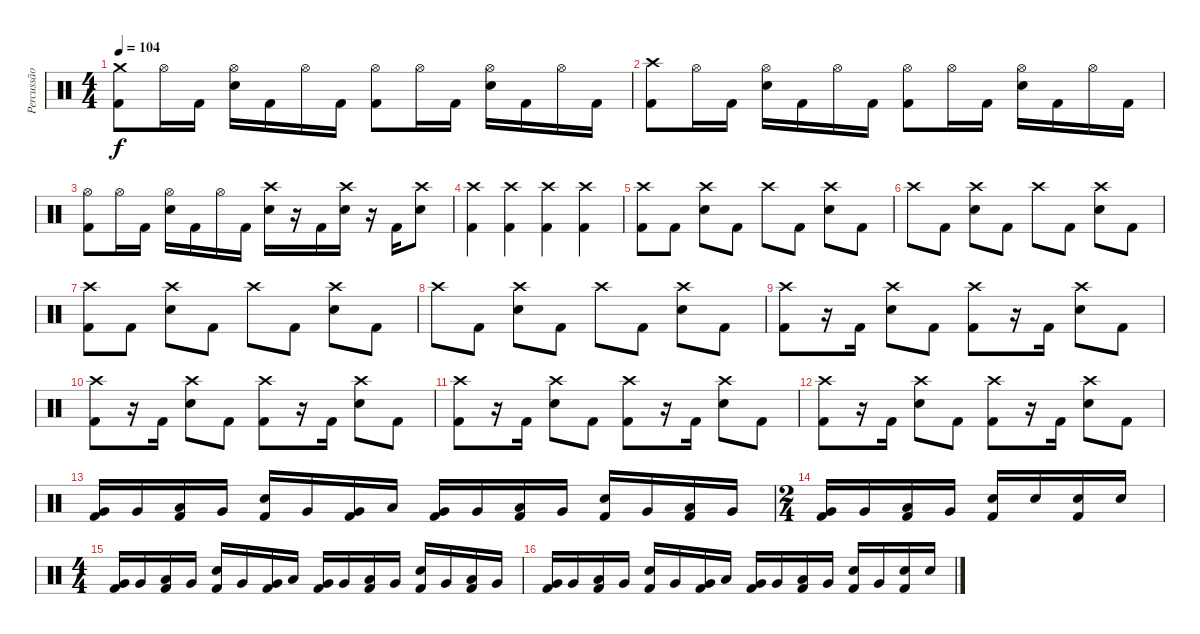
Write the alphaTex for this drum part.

\track ("Percussão" "Percussão") {instrument percussion}
\staff {score}
\articulation defaults
\ts (4 4)
\tempo 104
\clef neutral
\ks c
("Crash medium (hit)" "Kick (hit) 2").8{dy f} "Hi-Hat (open)".16 "Kick (hit) 2".16 ("Hi-Hat (open)" "Electric Snare (hit)").16 "Kick (hit) 2".16 "Hi-Hat (open)".16 "Kick (hit) 2".16 ("Hi-Hat (open)" "Kick (hit) 2").8 "Hi-Hat (open)".16 "Kick (hit) 2".16 ("Hi-Hat (open)" "Electric Snare (hit)").16 "Kick (hit) 2".16 "Hi-Hat (open)".16 "Kick (hit) 2".16 |
("Crash high (hit)" "Kick (hit) 2").8 "Hi-Hat (open)".16 "Kick (hit) 2".16 ("Hi-Hat (open)" "Electric Snare (hit)").16 "Kick (hit) 2".16 "Hi-Hat (open)".16 "Kick (hit) 2".16 ("Hi-Hat (open)" "Kick (hit) 2").8 "Hi-Hat (open)".16 "Kick (hit) 2".16 ("Hi-Hat (open)" "Electric Snare (hit)").16 "Kick (hit) 2".16 "Hi-Hat (open)".16 "Kick (hit) 2".16 |
("Hi-Hat (open)" "Kick (hit) 2").8 "Hi-Hat (open)".16 "Kick (hit) 2".16 ("Hi-Hat (open)" "Electric Snare (hit)").16 "Kick (hit) 2".16 "Hi-Hat (open)".16 "Kick (hit) 2".16 ("Crash high (hit)" "Electric Snare (hit)").16 r.16 "Kick (hit) 2".16 ("Crash high (hit)" "Electric Snare (hit)").16 r.16 "Kick (hit) 2".16 ("Crash high (hit)" "Electric Snare (hit)").8 |
("Crash high (hit)" "Kick (hit) 2").4 ("Crash high (hit)" "Kick (hit) 2").4 ("Crash high (hit)" "Kick (hit) 2").4 ("Crash high (hit)" "Kick (hit) 2").4 |
("Crash high (hit)" "Kick (hit) 2").8 "Kick (hit) 2".8 ("Crash high (hit)" "Electric Snare (hit)").8 "Kick (hit) 2".8 "Crash high (hit)".8 "Kick (hit) 2".8 ("Crash high (hit)" "Electric Snare (hit)").8 "Kick (hit) 2".8 |
"Crash high (hit)".8 "Kick (hit) 2".8 ("Crash high (hit)" "Electric Snare (hit)").8 "Kick (hit) 2".8 "Crash high (hit)".8 "Kick (hit) 2".8 ("Crash high (hit)" "Electric Snare (hit)").8 "Kick (hit) 2".8 |
("Crash high (hit)" "Kick (hit) 2").8 "Kick (hit) 2".8 ("Crash high (hit)" "Electric Snare (hit)").8 "Kick (hit) 2".8 "Crash high (hit)".8 "Kick (hit) 2".8 ("Crash high (hit)" "Electric Snare (hit)").8 "Kick (hit) 2".8 |
"Crash high (hit)".8 "Kick (hit) 2".8 ("Crash high (hit)" "Electric Snare (hit)").8 "Kick (hit) 2".8 "Crash high (hit)".8 "Kick (hit) 2".8 ("Crash high (hit)" "Electric Snare (hit)").8 "Kick (hit) 2".8 |
("Crash high (hit)" "Kick (hit) 2").8 r.16 "Kick (hit) 2".16 ("Crash high (hit)" "Electric Snare (hit)").8 "Kick (hit) 2".8 ("Crash high (hit)" "Kick (hit) 2").8 r.16 "Kick (hit) 2".16 ("Crash high (hit)" "Electric Snare (hit)").8 "Kick (hit) 2".8 |
("Crash high (hit)" "Kick (hit) 2").8 r.16 "Kick (hit) 2".16 ("Crash high (hit)" "Electric Snare (hit)").8 "Kick (hit) 2".8 ("Crash high (hit)" "Kick (hit) 2").8 r.16 "Kick (hit) 2".16 ("Crash high (hit)" "Electric Snare (hit)").8 "Kick (hit) 2".8 |
("Crash high (hit)" "Kick (hit) 2").8 r.16 "Kick (hit) 2".16 ("Crash high (hit)" "Electric Snare (hit)").8 "Kick (hit) 2".8 ("Crash high (hit)" "Kick (hit) 2").8 r.16 "Kick (hit) 2".16 ("Crash high (hit)" "Electric Snare (hit)").8 "Kick (hit) 2".8 |
("Crash high (hit)" "Kick (hit) 2").8 r.16 "Kick (hit) 2".16 ("Crash high (hit)" "Electric Snare (hit)").8 "Kick (hit) 2".8 ("Crash high (hit)" "Kick (hit) 2").8 r.16 "Kick (hit) 2".16 ("Crash high (hit)" "Electric Snare (hit)").8 "Kick (hit) 2".8 |
("Very Low Tom (hit)" "Kick (hit) 2").16 "Very Low Tom (hit)".16 ("Low Tom (hit)" "Kick (hit) 2").16 "Very Low Tom (hit)".16 ("Electric Snare (hit)" "Kick (hit) 2").16 "Very Low Tom (hit)".16 ("Very Low Tom (hit)" "Kick (hit) 2").16 "Low Tom (hit)".16 ("Very Low Tom (hit)" "Kick (hit) 2").16 "Very Low Tom (hit)".16 ("Low Tom (hit)" "Kick (hit) 2").16 "Very Low Tom (hit)".16 ("Electric Snare (hit)" "Kick (hit) 2").16 "Very Low Tom (hit)".16 ("Low Tom (hit)" "Kick (hit) 2").16 "Very Low Tom (hit)".16 |
\ts (2 4)
("Very Low Tom (hit)" "Kick (hit) 2").16 "Very Low Tom (hit)".16 ("Low Tom (hit)" "Kick (hit) 2").16 "Very Low Tom (hit)".16 ("Electric Snare (hit)" "Kick (hit) 2").16 "Electric Snare (hit)".16 ("Electric Snare (hit)" "Kick (hit) 2").16 "Electric Snare (hit)".16 |
\ts (4 4)
("Very Low Tom (hit)" "Kick (hit) 2").16 "Very Low Tom (hit)".16 ("Low Tom (hit)" "Kick (hit) 2").16 "Very Low Tom (hit)".16 ("Electric Snare (hit)" "Kick (hit) 2").16 "Very Low Tom (hit)".16 ("Very Low Tom (hit)" "Kick (hit) 2").16 "Low Tom (hit)".16 ("Very Low Tom (hit)" "Kick (hit) 2").16 "Very Low Tom (hit)".16 ("Low Tom (hit)" "Kick (hit) 2").16 "Very Low Tom (hit)".16 ("Electric Snare (hit)" "Kick (hit) 2").16 "Very Low Tom (hit)".16 ("Low Tom (hit)" "Kick (hit) 2").16 "Very Low Tom (hit)".16 |
("Very Low Tom (hit)" "Kick (hit) 2").16 "Very Low Tom (hit)".16 ("Low Tom (hit)" "Kick (hit) 2").16 "Very Low Tom (hit)".16 ("Electric Snare (hit)" "Kick (hit) 2").16 "Very Low Tom (hit)".16 ("Very Low Tom (hit)" "Kick (hit) 2").16 "Low Tom (hit)".16 ("Very Low Tom (hit)" "Kick (hit) 2").16 "Very Low Tom (hit)".16 ("Low Tom (hit)" "Kick (hit) 2").16 "Very Low Tom (hit)".16 ("Electric Snare (hit)" "Kick (hit) 2").16 "Very Low Tom (hit)".16 ("Electric Snare (hit)" "Kick (hit) 2").16 "Electric Snare (hit)".16
